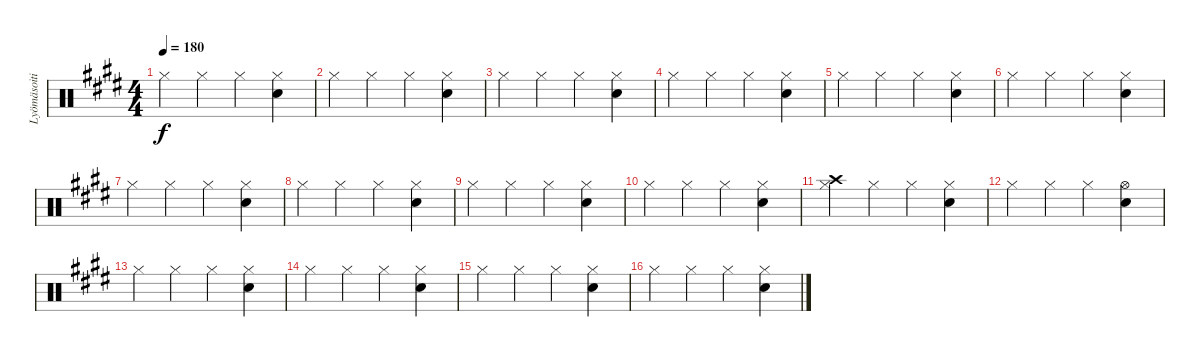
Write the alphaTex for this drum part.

\track ("Lyömäsoitin" "Lyömäsoiti") {instrument percussion}
\staff {score}
\articulation defaults
\ts (4 4)
\tempo 180
\clef neutral
\ks e "Hi-Hat (closed)".4{dy f} "Hi-Hat (closed)".4 "Hi-Hat (closed)".4
("Hi-Hat (closed)" "Electric Snare (hit)").4 |
"Hi-Hat (closed)".4 "Hi-Hat (closed)".4 "Hi-Hat (closed)".4 ("Hi-Hat (closed)" "Electric Snare (hit)").4 |
"Hi-Hat (closed)".4 "Hi-Hat (closed)".4 "Hi-Hat (closed)".4 ("Hi-Hat (closed)" "Electric Snare (hit)").4 |
"Hi-Hat (closed)".4 "Hi-Hat (closed)".4 "Hi-Hat (closed)".4 ("Hi-Hat (closed)" "Electric Snare (hit)").4 |
"Hi-Hat (closed)".4 "Hi-Hat (closed)".4 "Hi-Hat (closed)".4 ("Hi-Hat (closed)" "Electric Snare (hit)").4 |
"Hi-Hat (closed)".4 "Hi-Hat (closed)".4 "Hi-Hat (closed)".4 ("Hi-Hat (closed)" "Electric Snare (hit)").4 |
"Hi-Hat (closed)".4 "Hi-Hat (closed)".4 "Hi-Hat (closed)".4 ("Hi-Hat (closed)" "Electric Snare (hit)").4 |
"Hi-Hat (closed)".4 "Hi-Hat (closed)".4 "Hi-Hat (closed)".4 ("Hi-Hat (closed)" "Electric Snare (hit)").4 |
"Hi-Hat (closed)".4 "Hi-Hat (closed)".4 "Hi-Hat (closed)".4 ("Hi-Hat (closed)" "Electric Snare (hit)").4 |
"Hi-Hat (closed)".4 "Hi-Hat (closed)".4 "Hi-Hat (closed)".4 ("Hi-Hat (closed)" "Electric Snare (hit)").4 |
("Crash high (hit)" "Hi-Hat (closed)").4 "Hi-Hat (closed)".4 "Hi-Hat (closed)".4 ("Hi-Hat (closed)" "Electric Snare (hit)").4 |
"Hi-Hat (closed)".4 "Hi-Hat (closed)".4 "Hi-Hat (closed)".4 ("Hi-Hat (open)" "Electric Snare (hit)").4 |
"Hi-Hat (closed)".4 "Hi-Hat (closed)".4 "Hi-Hat (closed)".4 ("Hi-Hat (closed)" "Electric Snare (hit)").4 |
"Hi-Hat (closed)".4 "Hi-Hat (closed)".4 "Hi-Hat (closed)".4 ("Hi-Hat (closed)" "Electric Snare (hit)").4 |
"Hi-Hat (closed)".4 "Hi-Hat (closed)".4 "Hi-Hat (closed)".4 ("Hi-Hat (closed)" "Electric Snare (hit)").4 |
"Hi-Hat (closed)".4 "Hi-Hat (closed)".4 "Hi-Hat (closed)".4 ("Hi-Hat (closed)" "Electric Snare (hit)").4
